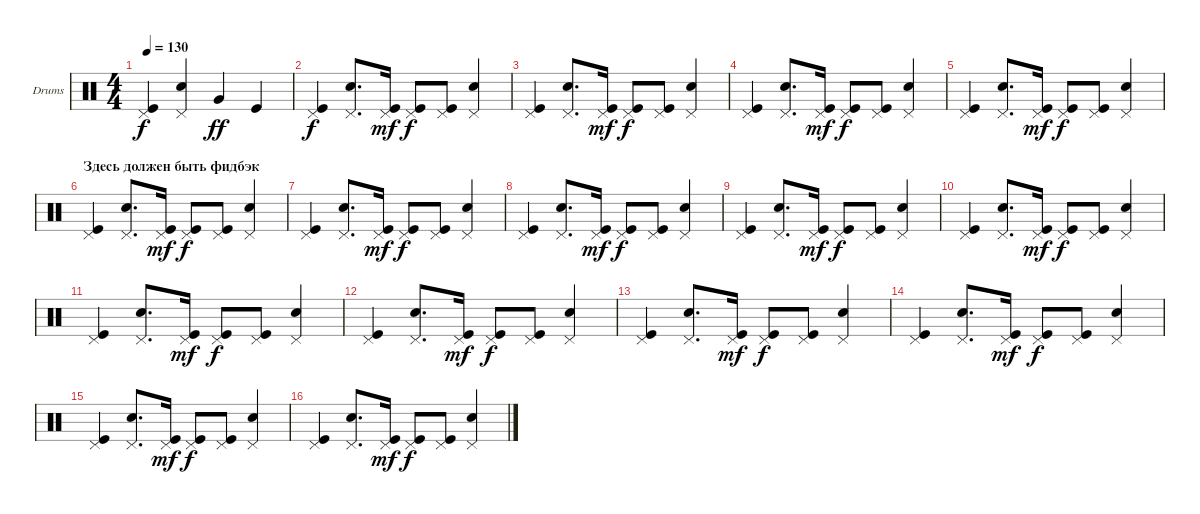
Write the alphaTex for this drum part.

\defaultSystemsLayout 4
\bracketExtendMode groupsimilarinstruments
\firstSystemTrackNameOrientation horizontal
\otherSystemsTrackNameOrientation horizontal
\track ("Е. Кулаков" "Drums") {instrument percussion}
\staff {score}
\articulation defaults
\ts (4 4)
\tempo 130
\clef neutral
\ks c
("Kick (hit)" "Pedal Hi-Hat (hit)").4{dy f} ("Snare (hit) 2" "Pedal Hi-Hat (hit)").4 "Very Low Tom (hit)".4{dy ff} "Kick (hit)".4 |
("Kick (hit)" "Pedal Hi-Hat (hit)").4{dy f} ("Snare (hit) 2" "Pedal Hi-Hat (hit)").8{d} ("Kick (hit)" "Pedal Hi-Hat (hit)").16{dy mf} ("Kick (hit)" "Pedal Hi-Hat (hit)").8{dy f} ("Kick (hit)" "Pedal Hi-Hat (hit)").8 ("Snare (hit) 2" "Pedal Hi-Hat (hit)").4 |
("Kick (hit)" "Pedal Hi-Hat (hit)").4 ("Snare (hit) 2" "Pedal Hi-Hat (hit)").8{d} ("Kick (hit)" "Pedal Hi-Hat (hit)").16{dy mf} ("Kick (hit)" "Pedal Hi-Hat (hit)").8{dy f} ("Kick (hit)" "Pedal Hi-Hat (hit)").8 ("Snare (hit) 2" "Pedal Hi-Hat (hit)").4 |
("Kick (hit)" "Pedal Hi-Hat (hit)").4 ("Snare (hit) 2" "Pedal Hi-Hat (hit)").8{d} ("Kick (hit)" "Pedal Hi-Hat (hit)").16{dy mf} ("Kick (hit)" "Pedal Hi-Hat (hit)").8{dy f} ("Kick (hit)" "Pedal Hi-Hat (hit)").8 ("Snare (hit) 2" "Pedal Hi-Hat (hit)").4 |
("Kick (hit)" "Pedal Hi-Hat (hit)").4 ("Snare (hit) 2" "Pedal Hi-Hat (hit)").8{d} ("Kick (hit)" "Pedal Hi-Hat (hit)").16{dy mf} ("Kick (hit)" "Pedal Hi-Hat (hit)").8{dy f} ("Kick (hit)" "Pedal Hi-Hat (hit)").8 ("Snare (hit) 2" "Pedal Hi-Hat (hit)").4 |
\section ("" "Здесь должен быть фидбэк")
("Kick (hit)" "Pedal Hi-Hat (hit)").4 ("Snare (hit) 2" "Pedal Hi-Hat (hit)").8{d} ("Kick (hit)" "Pedal Hi-Hat (hit)").16{dy mf} ("Kick (hit)" "Pedal Hi-Hat (hit)").8{dy f} ("Kick (hit)" "Pedal Hi-Hat (hit)").8 ("Snare (hit) 2" "Pedal Hi-Hat (hit)").4 |
("Kick (hit)" "Pedal Hi-Hat (hit)").4 ("Snare (hit) 2" "Pedal Hi-Hat (hit)").8{d} ("Kick (hit)" "Pedal Hi-Hat (hit)").16{dy mf} ("Kick (hit)" "Pedal Hi-Hat (hit)").8{dy f} ("Kick (hit)" "Pedal Hi-Hat (hit)").8 ("Snare (hit) 2" "Pedal Hi-Hat (hit)").4 |
("Kick (hit)" "Pedal Hi-Hat (hit)").4 ("Snare (hit) 2" "Pedal Hi-Hat (hit)").8{d} ("Kick (hit)" "Pedal Hi-Hat (hit)").16{dy mf} ("Kick (hit)" "Pedal Hi-Hat (hit)").8{dy f} ("Kick (hit)" "Pedal Hi-Hat (hit)").8 ("Snare (hit) 2" "Pedal Hi-Hat (hit)").4 |
("Kick (hit)" "Pedal Hi-Hat (hit)").4 ("Snare (hit) 2" "Pedal Hi-Hat (hit)").8{d} ("Kick (hit)" "Pedal Hi-Hat (hit)").16{dy mf} ("Kick (hit)" "Pedal Hi-Hat (hit)").8{dy f} ("Kick (hit)" "Pedal Hi-Hat (hit)").8 ("Snare (hit) 2" "Pedal Hi-Hat (hit)").4 |
("Kick (hit)" "Pedal Hi-Hat (hit)").4 ("Snare (hit) 2" "Pedal Hi-Hat (hit)").8{d} ("Kick (hit)" "Pedal Hi-Hat (hit)").16{dy mf} ("Kick (hit)" "Pedal Hi-Hat (hit)").8{dy f} ("Kick (hit)" "Pedal Hi-Hat (hit)").8 ("Snare (hit) 2" "Pedal Hi-Hat (hit)").4 |
("Kick (hit)" "Pedal Hi-Hat (hit)").4 ("Snare (hit) 2" "Pedal Hi-Hat (hit)").8{d} ("Kick (hit)" "Pedal Hi-Hat (hit)").16{dy mf} ("Kick (hit)" "Pedal Hi-Hat (hit)").8{dy f} ("Kick (hit)" "Pedal Hi-Hat (hit)").8 ("Snare (hit) 2" "Pedal Hi-Hat (hit)").4 |
("Kick (hit)" "Pedal Hi-Hat (hit)").4 ("Snare (hit) 2" "Pedal Hi-Hat (hit)").8{d} ("Kick (hit)" "Pedal Hi-Hat (hit)").16{dy mf} ("Kick (hit)" "Pedal Hi-Hat (hit)").8{dy f} ("Kick (hit)" "Pedal Hi-Hat (hit)").8 ("Snare (hit) 2" "Pedal Hi-Hat (hit)").4 |
("Kick (hit)" "Pedal Hi-Hat (hit)").4 ("Snare (hit) 2" "Pedal Hi-Hat (hit)").8{d} ("Kick (hit)" "Pedal Hi-Hat (hit)").16{dy mf} ("Kick (hit)" "Pedal Hi-Hat (hit)").8{dy f} ("Kick (hit)" "Pedal Hi-Hat (hit)").8 ("Snare (hit) 2" "Pedal Hi-Hat (hit)").4 |
("Kick (hit)" "Pedal Hi-Hat (hit)").4 ("Snare (hit) 2" "Pedal Hi-Hat (hit)").8{d} ("Kick (hit)" "Pedal Hi-Hat (hit)").16{dy mf} ("Kick (hit)" "Pedal Hi-Hat (hit)").8{dy f} ("Kick (hit)" "Pedal Hi-Hat (hit)").8 ("Snare (hit) 2" "Pedal Hi-Hat (hit)").4 |
("Kick (hit)" "Pedal Hi-Hat (hit)").4 ("Snare (hit) 2" "Pedal Hi-Hat (hit)").8{d} ("Kick (hit)" "Pedal Hi-Hat (hit)").16{dy mf} ("Kick (hit)" "Pedal Hi-Hat (hit)").8{dy f} ("Kick (hit)" "Pedal Hi-Hat (hit)").8 ("Snare (hit) 2" "Pedal Hi-Hat (hit)").4 |
("Kick (hit)" "Pedal Hi-Hat (hit)").4 ("Snare (hit) 2" "Pedal Hi-Hat (hit)").8{d} ("Kick (hit)" "Pedal Hi-Hat (hit)").16{dy mf} ("Kick (hit)" "Pedal Hi-Hat (hit)").8{dy f} ("Kick (hit)" "Pedal Hi-Hat (hit)").8 ("Snare (hit) 2" "Pedal Hi-Hat (hit)").4
